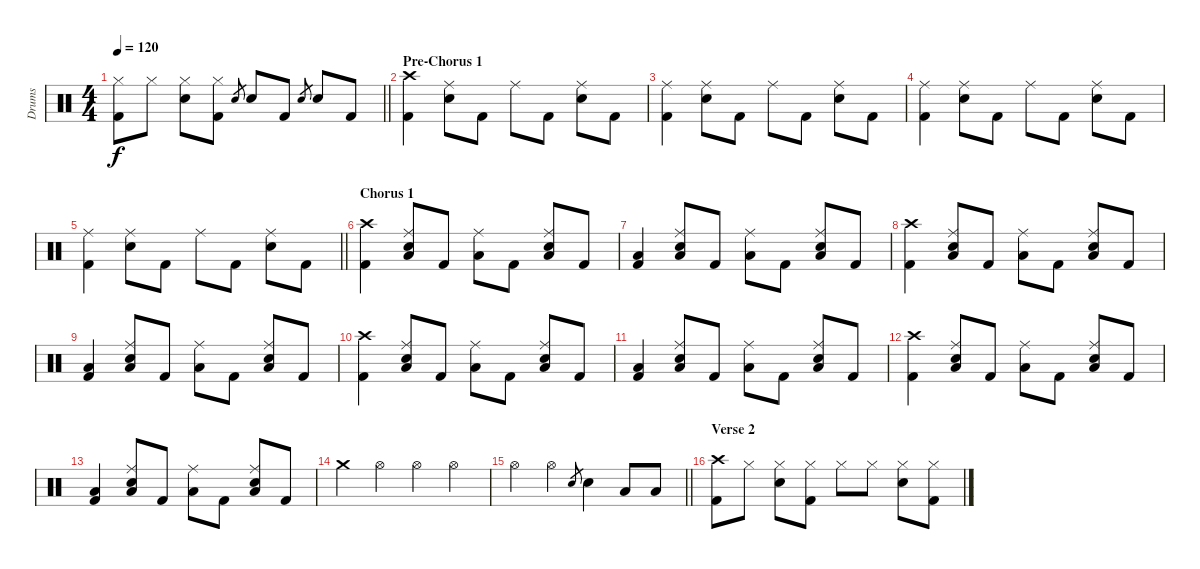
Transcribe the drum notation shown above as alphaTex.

\track ("Drums" "Drums") {instrument percussion}
\staff {score}
\articulation defaults
\ts (4 4)
\tempo 120
\clef neutral
\barLineRight lightlight
\ks c
("Hi-Hat (closed)" "Kick (hit) 2").8{dy f} "Hi-Hat (closed)".8 ("Hi-Hat (closed)" "Snare (hit) 2").8 ("Hi-Hat (closed)" "Kick (hit) 2").8 "Snare (hit) 2".8{gr} "Snare (hit) 2".8 "Kick (hit) 2".8 "Snare (hit) 2".8{gr} "Snare (hit) 2".8 "Kick (hit) 2".8 |
\section ("" "Pre-Chorus 1")
("Crash high (hit)" "Kick (hit) 2").4 ("Ride (middle)" "Snare (hit) 2").8 "Kick (hit) 2".8 "Ride (middle)".8 "Kick (hit) 2".8 ("Ride (middle)" "Snare (hit) 2").8 "Kick (hit) 2".8 |
("Ride (middle)" "Kick (hit) 2").4 ("Ride (middle)" "Snare (hit) 2").8 "Kick (hit) 2".8 "Ride (middle)".8 "Kick (hit) 2".8 ("Ride (middle)" "Snare (hit) 2").8 "Kick (hit) 2".8 |
("Ride (middle)" "Kick (hit) 2").4 ("Ride (middle)" "Snare (hit) 2").8 "Kick (hit) 2".8 "Ride (middle)".8 "Kick (hit) 2".8 ("Ride (middle)" "Snare (hit) 2").8 "Kick (hit) 2".8 |
\barLineRight lightlight
("Ride (middle)" "Kick (hit) 2").4 ("Ride (middle)" "Snare (hit) 2").8 "Kick (hit) 2".8 "Ride (middle)".8 "Kick (hit) 2".8 ("Ride (middle)" "Snare (hit) 2").8 "Kick (hit) 2".8 |
\section ("" "Chorus 1")
("Crash high (hit)" "Kick (hit) 2").4 ("Ride (middle)" "Low Floor Tom (hit)" "Snare (hit) 2").8 "Kick (hit) 2".8 ("Ride (middle)" "Low Floor Tom (hit)").8 "Kick (hit) 2".8 ("Ride (middle)" "Low Floor Tom (hit)" "Snare (hit) 2").8 "Kick (hit) 2".8 |
("Low Floor Tom (hit)" "Kick (hit) 2").4 ("Ride (middle)" "Low Floor Tom (hit)" "Snare (hit) 2").8 "Kick (hit) 2".8 ("Ride (middle)" "Low Floor Tom (hit)").8 "Kick (hit) 2".8 ("Ride (middle)" "Low Floor Tom (hit)" "Snare (hit) 2").8 "Kick (hit) 2".8 |
("Crash high (hit)" "Kick (hit) 2").4 ("Ride (middle)" "Low Floor Tom (hit)" "Snare (hit) 2").8 "Kick (hit) 2".8 ("Ride (middle)" "Low Floor Tom (hit)").8 "Kick (hit) 2".8 ("Ride (middle)" "Low Floor Tom (hit)" "Snare (hit) 2").8 "Kick (hit) 2".8 |
("Low Floor Tom (hit)" "Kick (hit) 2").4 ("Ride (middle)" "Low Floor Tom (hit)" "Snare (hit) 2").8 "Kick (hit) 2".8 ("Ride (middle)" "Low Floor Tom (hit)").8 "Kick (hit) 2".8 ("Ride (middle)" "Low Floor Tom (hit)" "Snare (hit) 2").8 "Kick (hit) 2".8 |
("Crash high (hit)" "Kick (hit) 2").4 ("Ride (middle)" "Low Floor Tom (hit)" "Snare (hit) 2").8 "Kick (hit) 2".8 ("Ride (middle)" "Low Floor Tom (hit)").8 "Kick (hit) 2".8 ("Ride (middle)" "Low Floor Tom (hit)" "Snare (hit) 2").8 "Kick (hit) 2".8 |
("Low Floor Tom (hit)" "Kick (hit) 2").4 ("Ride (middle)" "Low Floor Tom (hit)" "Snare (hit) 2").8 "Kick (hit) 2".8 ("Ride (middle)" "Low Floor Tom (hit)").8 "Kick (hit) 2".8 ("Ride (middle)" "Low Floor Tom (hit)" "Snare (hit) 2").8 "Kick (hit) 2".8 |
("Crash high (hit)" "Kick (hit) 2").4 ("Ride (middle)" "Low Floor Tom (hit)" "Snare (hit) 2").8 "Kick (hit) 2".8 ("Ride (middle)" "Low Floor Tom (hit)").8 "Kick (hit) 2".8 ("Ride (middle)" "Low Floor Tom (hit)" "Snare (hit) 2").8 "Kick (hit) 2".8 |
("Low Floor Tom (hit)" "Kick (hit) 2").4 ("Ride (middle)" "Low Floor Tom (hit)" "Snare (hit) 2").8 "Kick (hit) 2".8 ("Ride (middle)" "Low Floor Tom (hit)").8 "Kick (hit) 2".8 ("Ride (middle)" "Low Floor Tom (hit)" "Snare (hit) 2").8 "Kick (hit) 2".8 |
"Crash medium (hit)".4 "Hi-Hat (open)".4 "Hi-Hat (open)".4 "Hi-Hat (open)".4 |
\barLineRight lightlight "Hi-Hat (open)".4 "Hi-Hat (open)".4 "Snare (hit) 2".8{gr} "Snare (hit) 2".4 "Low Tom (hit)".8 "Low Tom (hit)".8
|
\section ("" "Verse 2")
("Crash high (hit)" "Kick (hit) 2").8 "Hi-Hat (closed)".8 ("Hi-Hat (closed)" "Snare (hit) 2").8 ("Hi-Hat (closed)" "Kick (hit) 2").8 "Hi-Hat (closed)".8 "Hi-Hat (closed)".8 ("Hi-Hat (closed)" "Snare (hit) 2").8 ("Hi-Hat (closed)" "Kick (hit) 2").8
